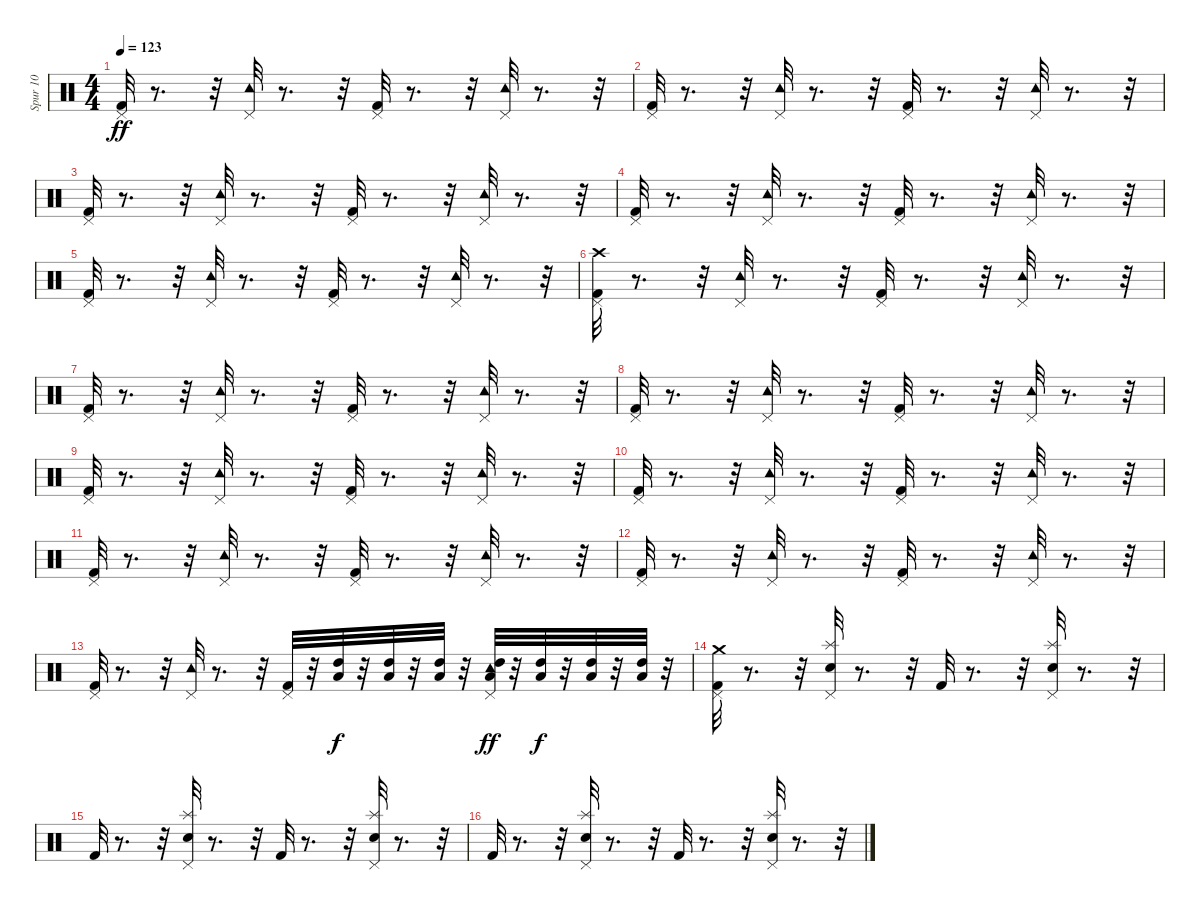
\track ("Spur 10" "Spur 10") {instrument percussion}
\staff {score}
\articulation defaults
\ts (4 4)
\tempo 123
\clef neutral
\ks c
("Kick (hit) 2" "Pedal Hi-Hat (hit)").32{dy ff} r.8{d} r.32 ("Tambourine (hit)" "Pedal Hi-Hat (hit)").32 r.8{d} r.32 ("Kick (hit) 2" "Pedal Hi-Hat (hit)").32 r.8{d} r.32 ("Tambourine (hit)" "Pedal Hi-Hat (hit)").32 r.8{d} r.32 |
("Kick (hit) 2" "Pedal Hi-Hat (hit)").32 r.8{d} r.32 ("Tambourine (hit)" "Pedal Hi-Hat (hit)").32 r.8{d} r.32 ("Kick (hit) 2" "Pedal Hi-Hat (hit)").32 r.8{d} r.32 ("Tambourine (hit)" "Pedal Hi-Hat (hit)").32 r.8{d} r.32 |
("Kick (hit) 2" "Pedal Hi-Hat (hit)").32 r.8{d} r.32 ("Tambourine (hit)" "Pedal Hi-Hat (hit)").32 r.8{d} r.32 ("Kick (hit) 2" "Pedal Hi-Hat (hit)").32 r.8{d} r.32 ("Tambourine (hit)" "Pedal Hi-Hat (hit)").32 r.8{d} r.32 |
("Kick (hit) 2" "Pedal Hi-Hat (hit)").32 r.8{d} r.32 ("Tambourine (hit)" "Pedal Hi-Hat (hit)").32 r.8{d} r.32 ("Kick (hit) 2" "Pedal Hi-Hat (hit)").32 r.8{d} r.32 ("Tambourine (hit)" "Pedal Hi-Hat (hit)").32 r.8{d} r.32 |
("Kick (hit) 2" "Pedal Hi-Hat (hit)").32 r.8{d} r.32 ("Tambourine (hit)" "Pedal Hi-Hat (hit)").32 r.8{d} r.32 ("Kick (hit) 2" "Pedal Hi-Hat (hit)").32 r.8{d} r.32 ("Tambourine (hit)" "Pedal Hi-Hat (hit)").32 r.8{d} r.32 |
("Kick (hit) 2" "Crash high (hit)" "Pedal Hi-Hat (hit)").32 r.8{d} r.32 ("Tambourine (hit)" "Pedal Hi-Hat (hit)").32 r.8{d} r.32 ("Kick (hit) 2" "Pedal Hi-Hat (hit)").32 r.8{d} r.32 ("Tambourine (hit)" "Pedal Hi-Hat (hit)").32 r.8{d} r.32 |
("Kick (hit) 2" "Pedal Hi-Hat (hit)").32 r.8{d} r.32 ("Tambourine (hit)" "Pedal Hi-Hat (hit)").32 r.8{d} r.32 ("Kick (hit) 2" "Pedal Hi-Hat (hit)").32 r.8{d} r.32 ("Tambourine (hit)" "Pedal Hi-Hat (hit)").32 r.8{d} r.32 |
("Kick (hit) 2" "Pedal Hi-Hat (hit)").32 r.8{d} r.32 ("Tambourine (hit)" "Pedal Hi-Hat (hit)").32 r.8{d} r.32 ("Kick (hit) 2" "Pedal Hi-Hat (hit)").32 r.8{d} r.32 ("Tambourine (hit)" "Pedal Hi-Hat (hit)").32 r.8{d} r.32 |
("Kick (hit) 2" "Pedal Hi-Hat (hit)").32 r.8{d} r.32 ("Tambourine (hit)" "Pedal Hi-Hat (hit)").32 r.8{d} r.32 ("Kick (hit) 2" "Pedal Hi-Hat (hit)").32 r.8{d} r.32 ("Tambourine (hit)" "Pedal Hi-Hat (hit)").32 r.8{d} r.32 |
("Kick (hit) 2" "Pedal Hi-Hat (hit)").32 r.8{d} r.32 ("Tambourine (hit)" "Pedal Hi-Hat (hit)").32 r.8{d} r.32 ("Kick (hit) 2" "Pedal Hi-Hat (hit)").32 r.8{d} r.32 ("Tambourine (hit)" "Pedal Hi-Hat (hit)").32 r.8{d} r.32 |
("Kick (hit) 2" "Pedal Hi-Hat (hit)").32 r.8{d} r.32 ("Tambourine (hit)" "Pedal Hi-Hat (hit)").32 r.8{d} r.32 ("Kick (hit) 2" "Pedal Hi-Hat (hit)").32 r.8{d} r.32 ("Tambourine (hit)" "Pedal Hi-Hat (hit)").32 r.8{d} r.32 |
("Kick (hit) 2" "Pedal Hi-Hat (hit)").32 r.8{d} r.32 ("Tambourine (hit)" "Pedal Hi-Hat (hit)").32 r.8{d} r.32 ("Kick (hit) 2" "Pedal Hi-Hat (hit)").32 r.8{d} r.32 ("Tambourine (hit)" "Pedal Hi-Hat (hit)").32 r.8{d} r.32 |
("Kick (hit) 2" "Pedal Hi-Hat (hit)").32 r.8{d} r.32 ("Tambourine (hit)" "Pedal Hi-Hat (hit)").32 r.8{d} r.32 ("Kick (hit) 2" "Pedal Hi-Hat (hit)").32 r.32 ("High Tom (hit)" "Low Floor Tom (hit)").32{dy f} r.32 ("High Tom (hit)" "Low Floor Tom (hit)").32 r.32 ("High Tom (hit)" "Low Floor Tom (hit)").32 r.32 ("High Tom (hit)" "Low Floor Tom (hit)" "Tambourine (hit)" "Pedal Hi-Hat (hit)").32{dy ff} r.32 ("High Tom (hit)" "Low Floor Tom (hit)").32{dy f} r.32 ("High Tom (hit)" "Low Floor Tom (hit)").32 r.32 ("High Tom (hit)" "Low Floor Tom (hit)").32 r.32 |
("Kick (hit) 2" "Crash medium (hit)" "Pedal Hi-Hat (hit)").32 r.8{d} r.32 ("Splash (hit)" "Pedal Hi-Hat (hit)" "Snare (hit) 2").32 r.8{d} r.32 "Kick (hit) 2".32 r.8{d} r.32 ("Snare (hit) 2" "Pedal Hi-Hat (hit)" "Splash (hit)").32 r.8{d} r.32 |
"Kick (hit) 2".32 r.8{d} r.32 ("Snare (hit) 2" "Pedal Hi-Hat (hit)" "Splash (hit)").32 r.8{d} r.32 "Kick (hit) 2".32 r.8{d} r.32 ("Snare (hit) 2" "Pedal Hi-Hat (hit)" "Splash (hit)").32 r.8{d} r.32 |
"Kick (hit) 2".32 r.8{d} r.32 ("Snare (hit) 2" "Pedal Hi-Hat (hit)" "Splash (hit)").32 r.8{d} r.32 "Kick (hit) 2".32 r.8{d} r.32 ("Snare (hit) 2" "Pedal Hi-Hat (hit)" "Splash (hit)").32 r.8{d} r.32
